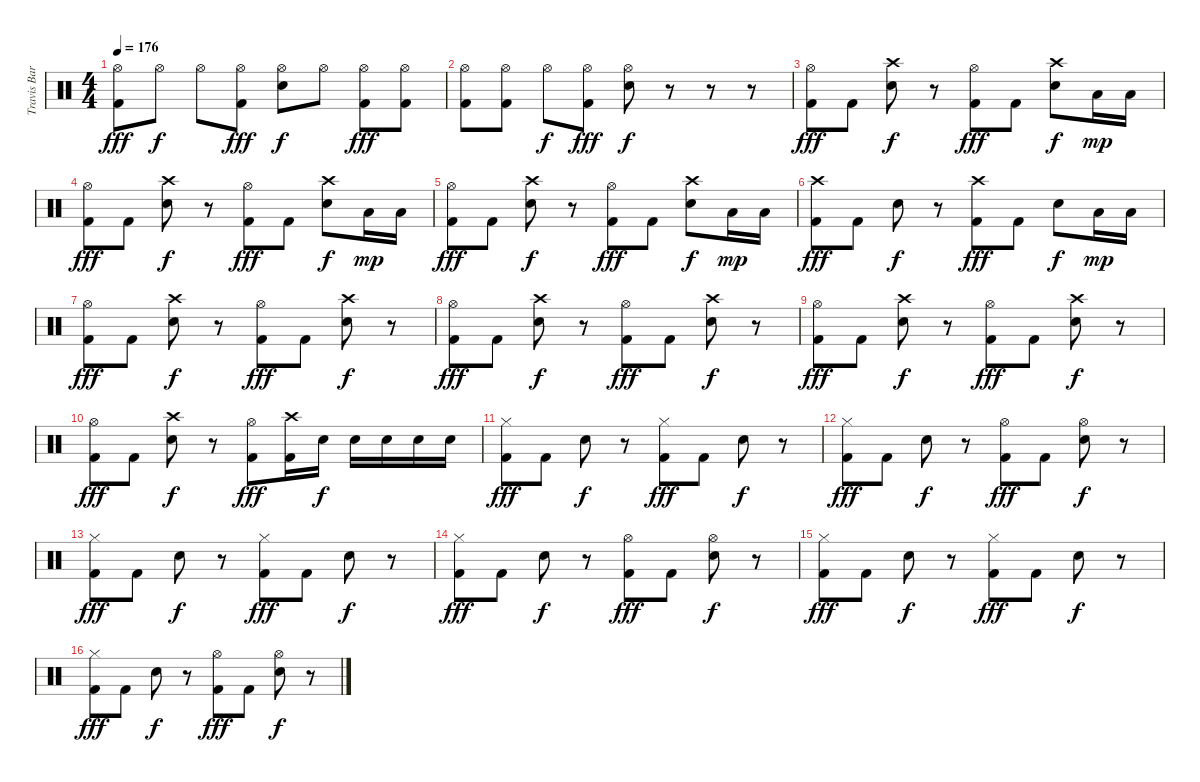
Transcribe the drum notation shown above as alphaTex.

\track ("Travis Barker - Drums" "Travis Bar") {instrument percussion}
\staff {score}
\articulation defaults
\ts (4 4)
\tempo 176
\clef neutral
\ks c
("Kick (hit) 2" "Hi-Hat (open)").8{dy fff} "Hi-Hat (open)".8{dy f} "Hi-Hat (open)".8 ("Kick (hit) 2" "Hi-Hat (open)").8{dy fff} ("Snare (hit) 2" "Hi-Hat (open)").8{dy f} "Hi-Hat (open)".8 ("Kick (hit) 2" "Hi-Hat (open)").8{dy fff} ("Kick (hit) 2" "Hi-Hat (open)").8 |
("Kick (hit) 2" "Hi-Hat (open)").8 ("Kick (hit) 2" "Hi-Hat (open)").8 "Hi-Hat (open)".8{dy f} ("Kick (hit) 2" "Hi-Hat (open)").8{dy fff} ("Snare (hit) 2" "Hi-Hat (open)").8{dy f} r.8 r.8 r.8 |
("Kick (hit) 2" "Hi-Hat (open)").8{dy fff} "Kick (hit) 2".8 ("Snare (hit) 2" "Crash high (hit)").8{dy f} r.8 ("Kick (hit) 2" "Hi-Hat (open)").8{dy fff} "Kick (hit) 2".8 ("Snare (hit) 2" "Crash high (hit)").8{dy f} "Low Tom (hit)".16{dy mp} "Low Tom (hit)".16 |
("Kick (hit) 2" "Hi-Hat (open)").8{dy fff} "Kick (hit) 2".8 ("Snare (hit) 2" "Crash high (hit)").8{dy f} r.8 ("Kick (hit) 2" "Hi-Hat (open)").8{dy fff} "Kick (hit) 2".8 ("Snare (hit) 2" "Crash high (hit)").8{dy f} "Low Tom (hit)".16{dy mp} "Low Tom (hit)".16 |
("Kick (hit) 2" "Hi-Hat (open)").8{dy fff} "Kick (hit) 2".8 ("Snare (hit) 2" "Crash high (hit)").8{dy f} r.8 ("Kick (hit) 2" "Hi-Hat (open)").8{dy fff} "Kick (hit) 2".8 ("Snare (hit) 2" "Crash high (hit)").8{dy f} "Low Tom (hit)".16{dy mp} "Low Tom (hit)".16 |
("Kick (hit) 2" "Crash high (hit)").8{dy fff} "Kick (hit) 2".8 "Snare (hit) 2".8{dy f} r.8 ("Kick (hit) 2" "Crash high (hit)").8{dy fff} "Kick (hit) 2".8 "Snare (hit) 2".8{dy f} "Low Tom (hit)".16{dy mp} "Low Tom (hit)".16 |
("Kick (hit) 2" "Hi-Hat (open)").8{dy fff} "Kick (hit) 2".8 ("Snare (hit) 2" "Crash high (hit)").8{dy f} r.8 ("Kick (hit) 2" "Hi-Hat (open)").8{dy fff} "Kick (hit) 2".8 ("Snare (hit) 2" "Crash high (hit)").8{dy f} r.8 |
("Kick (hit) 2" "Hi-Hat (open)").8{dy fff} "Kick (hit) 2".8 ("Snare (hit) 2" "Crash high (hit)").8{dy f} r.8 ("Kick (hit) 2" "Hi-Hat (open)").8{dy fff} "Kick (hit) 2".8 ("Snare (hit) 2" "Crash high (hit)").8{dy f} r.8 |
("Kick (hit) 2" "Hi-Hat (open)").8{dy fff} "Kick (hit) 2".8 ("Snare (hit) 2" "Crash high (hit)").8{dy f} r.8 ("Kick (hit) 2" "Hi-Hat (open)").8{dy fff} "Kick (hit) 2".8 ("Snare (hit) 2" "Crash high (hit)").8{dy f} r.8 |
("Kick (hit) 2" "Hi-Hat (open)").8{dy fff} "Kick (hit) 2".8 ("Snare (hit) 2" "Crash high (hit)").8{dy f} r.8 ("Kick (hit) 2" "Hi-Hat (open)").8{dy fff} ("Kick (hit) 2" "Crash high (hit)").16 "Snare (hit) 2".16{dy f} "Snare (hit) 2".16 "Snare (hit) 2".16 "Snare (hit) 2".16 "Snare (hit) 2".16 |
("Kick (hit) 2" "Hi-Hat (closed)").8{dy fff} "Kick (hit) 2".8 "Snare (hit) 2".8{dy f} r.8 ("Kick (hit) 2" "Hi-Hat (closed)").8{dy fff} "Kick (hit) 2".8 "Snare (hit) 2".8{dy f} r.8 |
("Kick (hit) 2" "Hi-Hat (closed)").8{dy fff} "Kick (hit) 2".8 "Snare (hit) 2".8{dy f} r.8 ("Kick (hit) 2" "Hi-Hat (open)").8{dy fff} "Kick (hit) 2".8 ("Snare (hit) 2" "Hi-Hat (open)").8{dy f} r.8 |
("Kick (hit) 2" "Hi-Hat (closed)").8{dy fff} "Kick (hit) 2".8 "Snare (hit) 2".8{dy f} r.8 ("Kick (hit) 2" "Hi-Hat (closed)").8{dy fff} "Kick (hit) 2".8 "Snare (hit) 2".8{dy f} r.8 |
("Kick (hit) 2" "Hi-Hat (closed)").8{dy fff} "Kick (hit) 2".8 "Snare (hit) 2".8{dy f} r.8 ("Kick (hit) 2" "Hi-Hat (open)").8{dy fff} "Kick (hit) 2".8 ("Snare (hit) 2" "Hi-Hat (open)").8{dy f} r.8 |
("Kick (hit) 2" "Hi-Hat (closed)").8{dy fff} "Kick (hit) 2".8 "Snare (hit) 2".8{dy f} r.8 ("Kick (hit) 2" "Hi-Hat (closed)").8{dy fff} "Kick (hit) 2".8 "Snare (hit) 2".8{dy f} r.8 |
("Kick (hit) 2" "Hi-Hat (closed)").8{dy fff} "Kick (hit) 2".8 "Snare (hit) 2".8{dy f} r.8 ("Kick (hit) 2" "Hi-Hat (open)").8{dy fff} "Kick (hit) 2".8 ("Snare (hit) 2" "Hi-Hat (open)").8{dy f} r.8
